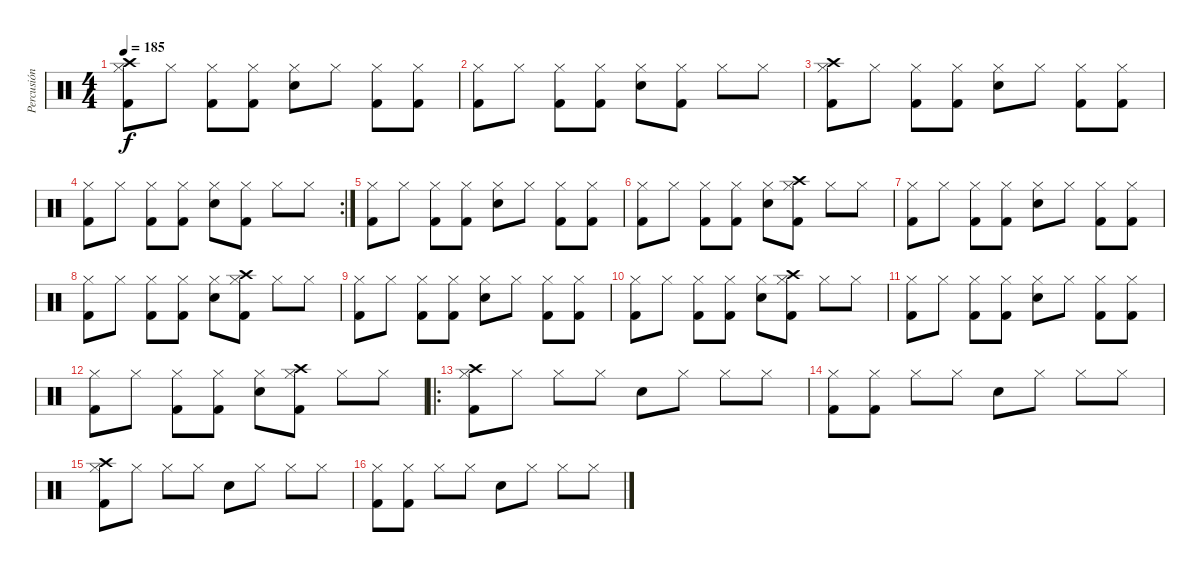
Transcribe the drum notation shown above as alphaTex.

\track ("Percusión" "Percusión") {instrument percussion}
\staff {score}
\articulation defaults
\ts (4 4)
\tempo 185
\clef neutral
\ks c
("Crash high (hit)" "Hi-Hat (closed)" "Kick (hit) 2").8{dy f} "Hi-Hat (closed)".8 ("Hi-Hat (closed)" "Kick (hit) 2").8 ("Hi-Hat (closed)" "Kick (hit) 2").8 ("Electric Snare (hit)" "Hi-Hat (closed)").8 "Hi-Hat (closed)".8 ("Hi-Hat (closed)" "Kick (hit) 2").8 ("Hi-Hat (closed)" "Kick (hit) 2").8 |
("Hi-Hat (closed)" "Kick (hit) 2").8 "Hi-Hat (closed)".8 ("Hi-Hat (closed)" "Kick (hit) 2").8 ("Hi-Hat (closed)" "Kick (hit) 2").8 ("Electric Snare (hit)" "Hi-Hat (closed)").8 ("Hi-Hat (closed)" "Kick (hit) 2").8 "Hi-Hat (closed)".8 "Hi-Hat (closed)".8 |
("Crash high (hit)" "Hi-Hat (closed)" "Kick (hit) 2").8 "Hi-Hat (closed)".8 ("Hi-Hat (closed)" "Kick (hit) 2").8 ("Hi-Hat (closed)" "Kick (hit) 2").8 ("Electric Snare (hit)" "Hi-Hat (closed)").8 "Hi-Hat (closed)".8 ("Hi-Hat (closed)" "Kick (hit) 2").8 ("Hi-Hat (closed)" "Kick (hit) 2").8 |
\rc 2
("Hi-Hat (closed)" "Kick (hit) 2").8 "Hi-Hat (closed)".8 ("Hi-Hat (closed)" "Kick (hit) 2").8 ("Hi-Hat (closed)" "Kick (hit) 2").8 ("Electric Snare (hit)" "Hi-Hat (closed)").8 ("Hi-Hat (closed)" "Kick (hit) 2").8 "Hi-Hat (closed)".8 "Hi-Hat (closed)".8 |
("Hi-Hat (closed)" "Kick (hit) 2").8 "Hi-Hat (closed)".8 ("Hi-Hat (closed)" "Kick (hit) 2").8 ("Hi-Hat (closed)" "Kick (hit) 2").8 ("Electric Snare (hit)" "Hi-Hat (closed)").8 "Hi-Hat (closed)".8 ("Hi-Hat (closed)" "Kick (hit) 2").8 ("Hi-Hat (closed)" "Kick (hit) 2").8 |
("Hi-Hat (closed)" "Kick (hit) 2").8 "Hi-Hat (closed)".8 ("Hi-Hat (closed)" "Kick (hit) 2").8 ("Hi-Hat (closed)" "Kick (hit) 2").8 ("Electric Snare (hit)" "Hi-Hat (closed)").8 ("Crash high (hit)" "Hi-Hat (closed)" "Kick (hit) 2").8 "Hi-Hat (closed)".8 "Hi-Hat (closed)".8 |
("Hi-Hat (closed)" "Kick (hit) 2").8 "Hi-Hat (closed)".8 ("Hi-Hat (closed)" "Kick (hit) 2").8 ("Hi-Hat (closed)" "Kick (hit) 2").8 ("Electric Snare (hit)" "Hi-Hat (closed)").8 "Hi-Hat (closed)".8 ("Hi-Hat (closed)" "Kick (hit) 2").8 ("Hi-Hat (closed)" "Kick (hit) 2").8 |
("Hi-Hat (closed)" "Kick (hit) 2").8 "Hi-Hat (closed)".8 ("Hi-Hat (closed)" "Kick (hit) 2").8 ("Hi-Hat (closed)" "Kick (hit) 2").8 ("Electric Snare (hit)" "Hi-Hat (closed)").8 ("Crash high (hit)" "Hi-Hat (closed)" "Kick (hit) 2").8 "Hi-Hat (closed)".8 "Hi-Hat (closed)".8 |
("Hi-Hat (closed)" "Kick (hit) 2").8 "Hi-Hat (closed)".8 ("Hi-Hat (closed)" "Kick (hit) 2").8 ("Hi-Hat (closed)" "Kick (hit) 2").8 ("Electric Snare (hit)" "Hi-Hat (closed)").8 "Hi-Hat (closed)".8 ("Hi-Hat (closed)" "Kick (hit) 2").8 ("Hi-Hat (closed)" "Kick (hit) 2").8 |
("Hi-Hat (closed)" "Kick (hit) 2").8 "Hi-Hat (closed)".8 ("Hi-Hat (closed)" "Kick (hit) 2").8 ("Hi-Hat (closed)" "Kick (hit) 2").8 ("Electric Snare (hit)" "Hi-Hat (closed)").8 ("Crash high (hit)" "Hi-Hat (closed)" "Kick (hit) 2").8 "Hi-Hat (closed)".8 "Hi-Hat (closed)".8 |
("Hi-Hat (closed)" "Kick (hit) 2").8 "Hi-Hat (closed)".8 ("Hi-Hat (closed)" "Kick (hit) 2").8 ("Hi-Hat (closed)" "Kick (hit) 2").8 ("Electric Snare (hit)" "Hi-Hat (closed)").8 "Hi-Hat (closed)".8 ("Hi-Hat (closed)" "Kick (hit) 2").8 ("Hi-Hat (closed)" "Kick (hit) 2").8 |
("Hi-Hat (closed)" "Kick (hit) 2").8 "Hi-Hat (closed)".8 ("Hi-Hat (closed)" "Kick (hit) 2").8 ("Hi-Hat (closed)" "Kick (hit) 2").8 ("Electric Snare (hit)" "Hi-Hat (closed)").8 ("Crash high (hit)" "Hi-Hat (closed)" "Kick (hit) 2").8 "Hi-Hat (closed)".8 "Hi-Hat (closed)".8 |
\ro
("Crash high (hit)" "Hi-Hat (closed)" "Kick (hit) 2").8 "Hi-Hat (closed)".8 "Hi-Hat (closed)".8 "Hi-Hat (closed)".8 "Electric Snare (hit)".8 "Hi-Hat (closed)".8 "Hi-Hat (closed)".8 "Hi-Hat (closed)".8 |
("Hi-Hat (closed)" "Kick (hit) 2").8 ("Hi-Hat (closed)" "Kick (hit) 2").8 "Hi-Hat (closed)".8 "Hi-Hat (closed)".8 "Electric Snare (hit)".8 "Hi-Hat (closed)".8 "Hi-Hat (closed)".8 "Hi-Hat (closed)".8 |
("Crash high (hit)" "Hi-Hat (closed)" "Kick (hit) 2").8 "Hi-Hat (closed)".8 "Hi-Hat (closed)".8 "Hi-Hat (closed)".8 "Electric Snare (hit)".8 "Hi-Hat (closed)".8 "Hi-Hat (closed)".8 "Hi-Hat (closed)".8 |
("Hi-Hat (closed)" "Kick (hit) 2").8 ("Hi-Hat (closed)" "Kick (hit) 2").8 "Hi-Hat (closed)".8 "Hi-Hat (closed)".8 "Electric Snare (hit)".8 "Hi-Hat (closed)".8 "Hi-Hat (closed)".8 "Hi-Hat (closed)".8
